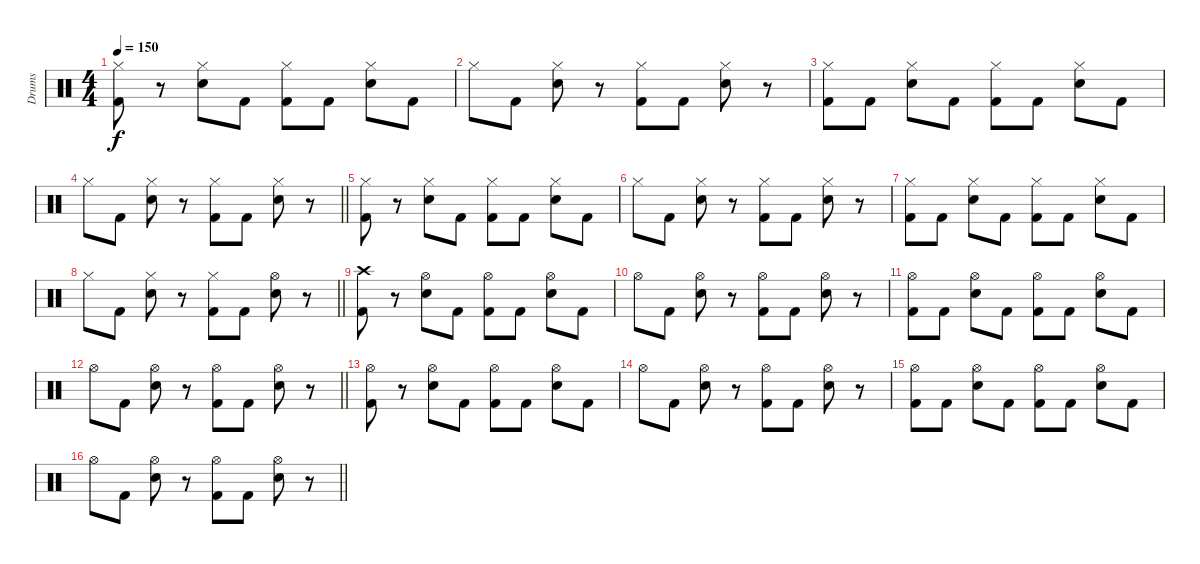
\track ("Drums" "Drums") {instrument percussion}
\staff {score}
\articulation defaults
\ts (4 4)
\tempo 150
\clef neutral
\ks c
("Hi-Hat (closed)" "Kick (hit) 2").8{dy f} r.8 ("Hi-Hat (closed)" "Snare (hit) 2").8 "Kick (hit) 2".8 ("Hi-Hat (closed)" "Kick (hit) 2").8 "Kick (hit) 2".8 ("Hi-Hat (closed)" "Snare (hit) 2").8 "Kick (hit) 2".8 |
"Hi-Hat (closed)".8 "Kick (hit) 2".8 ("Hi-Hat (closed)" "Snare (hit) 2").8 r.8 ("Hi-Hat (closed)" "Kick (hit) 2").8 "Kick (hit) 2".8 ("Hi-Hat (closed)" "Snare (hit) 2").8 r.8 |
("Hi-Hat (closed)" "Kick (hit) 2").8 "Kick (hit) 2".8 ("Hi-Hat (closed)" "Snare (hit) 2").8 "Kick (hit) 2".8 ("Hi-Hat (closed)" "Kick (hit) 2").8 "Kick (hit) 2".8 ("Hi-Hat (closed)" "Snare (hit) 2").8 "Kick (hit) 2".8 |
\barLineRight lightlight "Hi-Hat (closed)".8 "Kick (hit) 2".8
("Hi-Hat (closed)" "Snare (hit) 2").8 r.8 ("Hi-Hat (closed)" "Kick (hit) 2").8 "Kick (hit) 2".8 ("Hi-Hat (closed)" "Snare (hit) 2").8 r.8 |
("Hi-Hat (closed)" "Kick (hit) 2").8 r.8 ("Hi-Hat (closed)" "Snare (hit) 2").8 "Kick (hit) 2".8 ("Hi-Hat (closed)" "Kick (hit) 2").8 "Kick (hit) 2".8 ("Hi-Hat (closed)" "Snare (hit) 2").8 "Kick (hit) 2".8 |
"Hi-Hat (closed)".8 "Kick (hit) 2".8 ("Hi-Hat (closed)" "Snare (hit) 2").8 r.8 ("Hi-Hat (closed)" "Kick (hit) 2").8 "Kick (hit) 2".8 ("Hi-Hat (closed)" "Snare (hit) 2").8 r.8 |
("Hi-Hat (closed)" "Kick (hit) 2").8 "Kick (hit) 2".8 ("Hi-Hat (closed)" "Snare (hit) 2").8 "Kick (hit) 2".8 ("Hi-Hat (closed)" "Kick (hit) 2").8 "Kick (hit) 2".8 ("Hi-Hat (closed)" "Snare (hit) 2").8 "Kick (hit) 2".8 |
\barLineRight lightlight "Hi-Hat (closed)".8 "Kick (hit) 2".8
("Hi-Hat (closed)" "Snare (hit) 2").8 r.8 ("Hi-Hat (closed)" "Kick (hit) 2").8 "Kick (hit) 2".8 ("Hi-Hat (open)" "Snare (hit) 2").8 r.8 |
("Crash high (hit)" "Kick (hit) 2").8 r.8 ("Hi-Hat (open)" "Snare (hit) 2").8 "Kick (hit) 2".8 ("Hi-Hat (open)" "Kick (hit) 2").8 "Kick (hit) 2".8 ("Hi-Hat (open)" "Snare (hit) 2").8 "Kick (hit) 2".8 |
"Hi-Hat (open)".8 "Kick (hit) 2".8 ("Hi-Hat (open)" "Snare (hit) 2").8 r.8 ("Hi-Hat (open)" "Kick (hit) 2").8 "Kick (hit) 2".8 ("Hi-Hat (open)" "Snare (hit) 2").8 r.8 |
("Hi-Hat (open)" "Kick (hit) 2").8 "Kick (hit) 2".8 ("Hi-Hat (open)" "Snare (hit) 2").8 "Kick (hit) 2".8 ("Hi-Hat (open)" "Kick (hit) 2").8 "Kick (hit) 2".8 ("Hi-Hat (open)" "Snare (hit) 2").8 "Kick (hit) 2".8 |
\barLineRight lightlight "Hi-Hat (open)".8 "Kick (hit) 2".8
("Hi-Hat (open)" "Snare (hit) 2").8 r.8 ("Hi-Hat (open)" "Kick (hit) 2").8 "Kick (hit) 2".8 ("Hi-Hat (open)" "Snare (hit) 2").8 r.8 |
("Hi-Hat (open)" "Kick (hit) 2").8 r.8 ("Hi-Hat (open)" "Snare (hit) 2").8 "Kick (hit) 2".8 ("Hi-Hat (open)" "Kick (hit) 2").8 "Kick (hit) 2".8 ("Hi-Hat (open)" "Snare (hit) 2").8 "Kick (hit) 2".8 |
"Hi-Hat (open)".8 "Kick (hit) 2".8 ("Hi-Hat (open)" "Snare (hit) 2").8 r.8 ("Hi-Hat (open)" "Kick (hit) 2").8 "Kick (hit) 2".8 ("Hi-Hat (open)" "Snare (hit) 2").8 r.8 |
("Hi-Hat (open)" "Kick (hit) 2").8 "Kick (hit) 2".8 ("Hi-Hat (open)" "Snare (hit) 2").8 "Kick (hit) 2".8 ("Hi-Hat (open)" "Kick (hit) 2").8 "Kick (hit) 2".8 ("Hi-Hat (open)" "Snare (hit) 2").8 "Kick (hit) 2".8 |
\barLineRight lightlight "Hi-Hat (open)".8 "Kick (hit) 2".8
("Hi-Hat (open)" "Snare (hit) 2").8 r.8 ("Hi-Hat (open)" "Kick (hit) 2").8 "Kick (hit) 2".8 ("Hi-Hat (open)" "Snare (hit) 2").8 r.8
